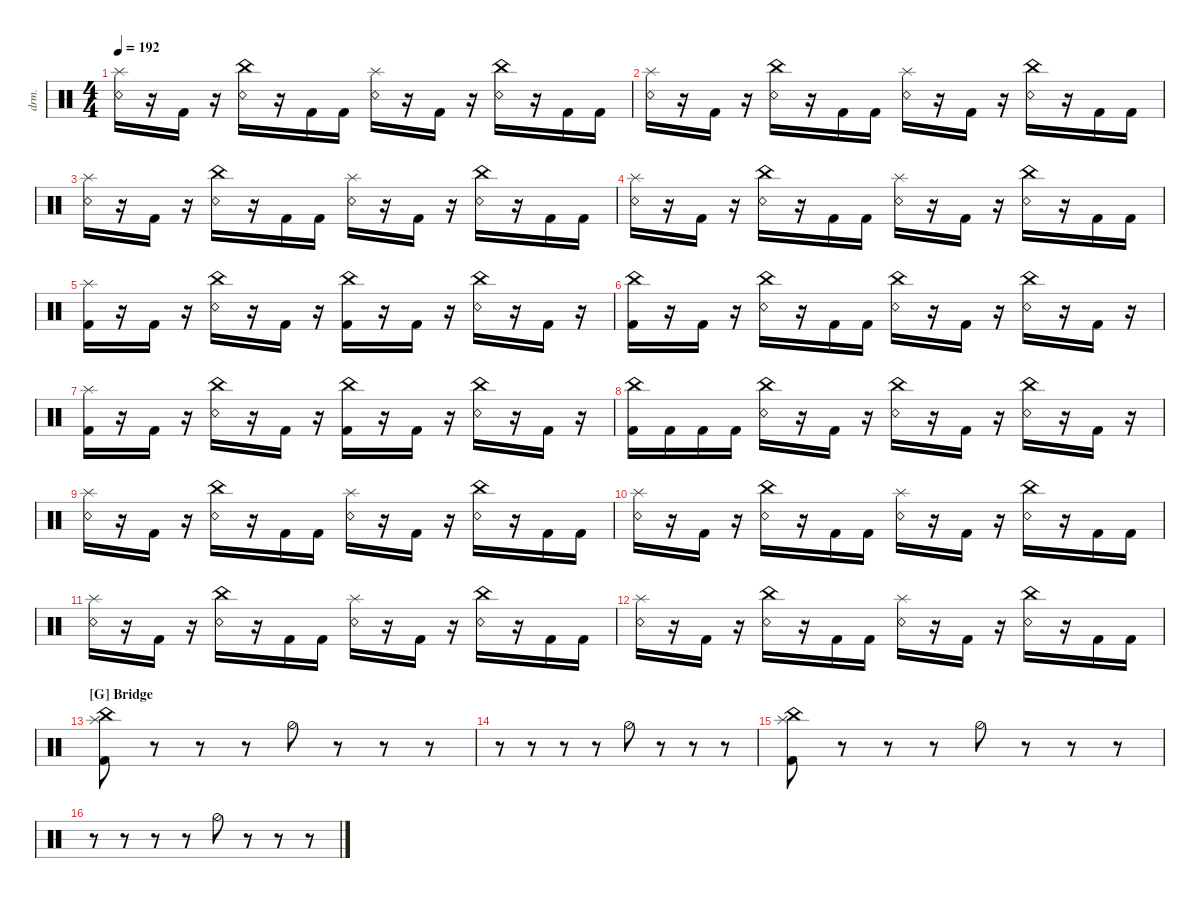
\defaultSystemsLayout 4
\hideDynamics
\bracketExtendMode nobrackets
\otherSystemsTrackNameOrientation horizontal
\track ("Drumkit" "drm.") {instrument percussion}
\staff {score}
\articulation defaults
\ts (4 4)
\tempo 192
\clef neutral
\ks c
("Snare (rim shot)" "Splash (hit)").16{dy ff beam Down} r.16{beam Down} "Kick (hit) 2".16{beam Down} r.16{beam Down} ("China (hit)" "Snare (rim shot)").16{beam Down} r.16{beam Down} "Kick (hit) 2".16{beam Down} "Kick (hit) 2".16{beam Down} ("Snare (rim shot)" "Splash (hit)").16{beam Down} r.16{beam Down} "Kick (hit) 2".16{beam Down} r.16{beam Down} ("China (hit)" "Snare (rim shot)").16{beam Down} r.16{beam Down} "Kick (hit) 2".16{beam Down} "Kick (hit) 2".16{beam Down} |
("Snare (rim shot)" "Splash (hit)").16{beam Down} r.16{beam Down} "Kick (hit) 2".16{beam Down} r.16{beam Down} ("China (hit)" "Snare (rim shot)").16{beam Down} r.16{beam Down} "Kick (hit) 2".16{beam Down} "Kick (hit) 2".16{beam Down} ("Snare (rim shot)" "Splash (hit)").16{beam Down} r.16{beam Down} "Kick (hit) 2".16{beam Down} r.16{beam Down} ("China (hit)" "Snare (rim shot)").16{beam Down} r.16{beam Down} "Kick (hit) 2".16{beam Down} "Kick (hit) 2".16{beam Down} |
("Snare (rim shot)" "Splash (hit)").16{beam Down} r.16{beam Down} "Kick (hit) 2".16{beam Down} r.16{beam Down} ("China (hit)" "Snare (rim shot)").16{beam Down} r.16{beam Down} "Kick (hit) 2".16{beam Down} "Kick (hit) 2".16{beam Down} ("Snare (rim shot)" "Splash (hit)").16{beam Down} r.16{beam Down} "Kick (hit) 2".16{beam Down} r.16{beam Down} ("China (hit)" "Snare (rim shot)").16{beam Down} r.16{beam Down} "Kick (hit) 2".16{beam Down} "Kick (hit) 2".16{beam Down} |
("Snare (rim shot)" "Splash (hit)").16{beam Down} r.16{beam Down} "Kick (hit) 2".16{beam Down} r.16{beam Down} ("China (hit)" "Snare (rim shot)").16{beam Down} r.16{beam Down} "Kick (hit) 2".16{beam Down} "Kick (hit) 2".16{beam Down} ("Snare (rim shot)" "Splash (hit)").16{beam Down} r.16{beam Down} "Kick (hit) 2".16{beam Down} r.16{beam Down} ("China (hit)" "Snare (rim shot)").16{beam Down} r.16{beam Down} "Kick (hit) 2".16{beam Down} "Kick (hit) 2".16{beam Down} |
("Kick (hit) 2" "Splash (hit)").16{beam Down} r.16{beam Down} "Kick (hit) 2".16{beam Down} r.16{beam Down} ("China (hit)" "Snare (rim shot)").16{beam Down} r.16{beam Down} "Kick (hit) 2".16{beam Down} r.16{beam Down} ("China (hit)" "Kick (hit) 2").16{beam Down} r.16{beam Down} "Kick (hit) 2".16{beam Down} r.16{beam Down} ("China (hit)" "Snare (rim shot)").16{beam Down} r.16{beam Down} "Kick (hit) 2".16{beam Down} r.16{beam Down} |
("Kick (hit) 2" "China (hit)").16{beam Down} r.16{beam Down} "Kick (hit) 2".16{beam Down} r.16{beam Down} ("China (hit)" "Snare (rim shot)").16{beam Down} r.16{beam Down} "Kick (hit) 2".16{beam Down} "Kick (hit) 2".16{beam Down} ("China (hit)" "Snare (rim shot)").16{beam Down} r.16{beam Down} "Kick (hit) 2".16{beam Down} r.16{beam Down} ("China (hit)" "Snare (rim shot)").16{beam Down} r.16{beam Down} "Kick (hit) 2".16{beam Down} r.16{beam Down} |
("Kick (hit) 2" "Splash (hit)").16{beam Down} r.16{beam Down} "Kick (hit) 2".16{beam Down} r.16{beam Down} ("China (hit)" "Snare (rim shot)").16{beam Down} r.16{beam Down} "Kick (hit) 2".16{beam Down} r.16{beam Down} ("China (hit)" "Kick (hit) 2").16{beam Down} r.16{beam Down} "Kick (hit) 2".16{beam Down} r.16{beam Down} ("China (hit)" "Snare (rim shot)").16{beam Down} r.16{beam Down} "Kick (hit) 2".16{beam Down} r.16{beam Down} |
("Kick (hit) 2" "China (hit)").16{beam Down} "Kick (hit) 2".16{beam Down} "Kick (hit) 2".16{beam Down} "Kick (hit) 2".16{beam Down} ("China (hit)" "Snare (rim shot)").16{beam Down} r.16{beam Down} "Kick (hit) 2".16{beam Down} r.16{beam Down} ("China (hit)" "Snare (rim shot)").16{beam Down} r.16{beam Down} "Kick (hit) 2".16{beam Down} r.16{beam Down} ("China (hit)" "Snare (rim shot)").16{beam Down} r.16{beam Down} "Kick (hit) 2".16{beam Down} r.16{beam Down} |
("Snare (rim shot)" "Splash (hit)").16{beam Down} r.16{beam Down} "Kick (hit) 2".16{beam Down} r.16{beam Down} ("China (hit)" "Snare (rim shot)").16{beam Down} r.16{beam Down} "Kick (hit) 2".16{beam Down} "Kick (hit) 2".16{beam Down} ("Snare (rim shot)" "Splash (hit)").16{beam Down} r.16{beam Down} "Kick (hit) 2".16{beam Down} r.16{beam Down} ("China (hit)" "Snare (rim shot)").16{beam Down} r.16{beam Down} "Kick (hit) 2".16{beam Down} "Kick (hit) 2".16{beam Down} |
("Snare (rim shot)" "Splash (hit)").16{beam Down} r.16{beam Down} "Kick (hit) 2".16{beam Down} r.16{beam Down} ("China (hit)" "Snare (rim shot)").16{beam Down} r.16{beam Down} "Kick (hit) 2".16{beam Down} "Kick (hit) 2".16{beam Down} ("Snare (rim shot)" "Splash (hit)").16{beam Down} r.16{beam Down} "Kick (hit) 2".16{beam Down} r.16{beam Down} ("China (hit)" "Snare (rim shot)").16{beam Down} r.16{beam Down} "Kick (hit) 2".16{beam Down} "Kick (hit) 2".16{beam Down} |
("Snare (rim shot)" "Splash (hit)").16{beam Down} r.16{beam Down} "Kick (hit) 2".16{beam Down} r.16{beam Down} ("China (hit)" "Snare (rim shot)").16{beam Down} r.16{beam Down} "Kick (hit) 2".16{beam Down} "Kick (hit) 2".16{beam Down} ("Snare (rim shot)" "Splash (hit)").16{beam Down} r.16{beam Down} "Kick (hit) 2".16{beam Down} r.16{beam Down} ("China (hit)" "Snare (rim shot)").16{beam Down} r.16{beam Down} "Kick (hit) 2".16{beam Down} "Kick (hit) 2".16{beam Down} |
("Snare (rim shot)" "Splash (hit)").16{beam Down} r.16{beam Down} "Kick (hit) 2".16{beam Down} r.16{beam Down} ("China (hit)" "Snare (rim shot)").16{beam Down} r.16{beam Down} "Kick (hit) 2".16{beam Down} "Kick (hit) 2".16{beam Down} ("Snare (rim shot)" "Splash (hit)").16{beam Down} r.16{beam Down} "Kick (hit) 2".16{beam Down} r.16{beam Down} ("China (hit)" "Snare (rim shot)").16{beam Down} r.16{beam Down} "Kick (hit) 2".16{beam Down} "Kick (hit) 2".16{beam Down} |
\section ("G" "Bridge")
("Kick (hit) 2" "Splash (hit)" "China (hit)").8{beam Down} r.8{beam Down} r.8{beam Down} r.8{beam Down} "Hi-Hat (half)".8{beam Down} r.8{beam Down} r.8{beam Down} r.8{beam Down} |
r.8{beam Down} r.8{beam Down} r.8{beam Down} r.8{beam Down} "Hi-Hat (half)".8{beam Down} r.8{beam Down} r.8{beam Down} r.8{beam Down} |
("Kick (hit) 2" "Splash (hit)" "China (hit)").8{beam Down} r.8{beam Down} r.8{beam Down} r.8{beam Down} "Hi-Hat (half)".8{beam Down} r.8{beam Down} r.8{beam Down} r.8{beam Down} |
r.8{beam Down} r.8{beam Down} r.8{beam Down} r.8{beam Down} "Hi-Hat (half)".8{beam Down} r.8{beam Down} r.8{beam Down} r.8{beam Down}
